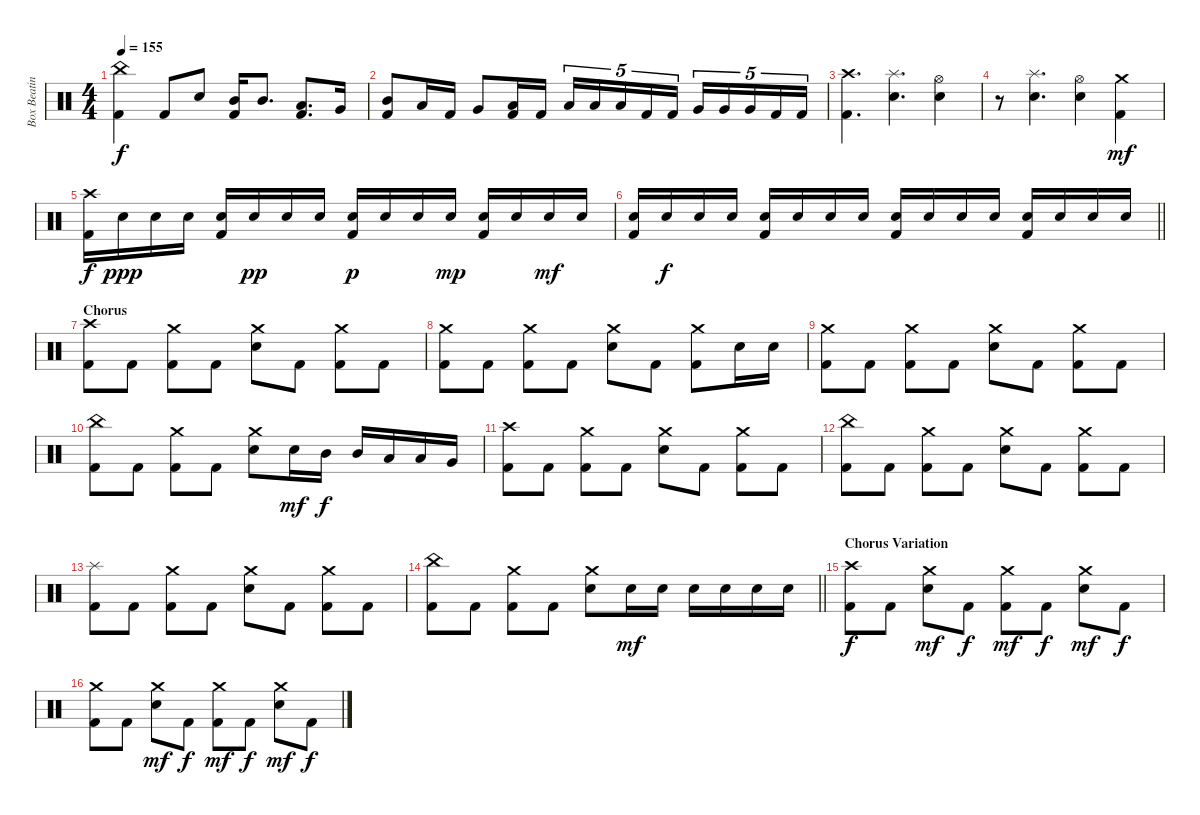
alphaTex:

\track ("Box Beating" "Box Beatin") {instrument percussion}
\staff {score}
\articulation defaults
\ts (4 4)
\tempo 155
\clef neutral
\ks c
("China (hit)" "Kick (hit) 2").4{dy f} "Kick (hit) 2".8 "Electric Snare (hit)".8 ("Mid Tom (hit)" "Kick (hit) 2").16 "Mid Tom (hit)".8{d} ("Low Tom (hit)" "Kick (hit) 2").8{d} "Very Low Tom (hit)".16 |
("Mid Tom (hit)" "Kick (hit) 2").8 "Low Tom (hit)".16 "Kick (hit) 2".16 "Very Low Tom (hit)".8 ("Low Floor Tom (hit)" "Kick (hit) 2").16 "Kick (hit) 2".16 "Low Tom (hit)".16{tu (5 4)} "Low Tom (hit)".16{tu (5 4)} "Low Tom (hit)".16{tu (5 4)} "Kick (hit) 2".16{tu (5 4)} "Kick (hit) 2".16{tu (5 4)} "Very Low Tom (hit)".16{tu (5 4)} "Very Low Tom (hit)".16{tu (5 4)} "Very Low Tom (hit)".16{tu (5 4)} "Kick (hit) 2".16{tu (5 4)} "Kick (hit) 2".16{tu (5 4)} |
("Crash high (hit)" "Kick (hit) 2").4{d} ("Splash (hit)" "Electric Snare (hit)").4{d} ("Hi-Hat (open)" "Electric Snare (hit)").4 |
r.8 ("Splash (hit)" "Electric Snare (hit)").4{d} ("Hi-Hat (open)" "Electric Snare (hit)").4 ("Crash medium (hit)" "Kick (hit) 2").4{dy mf} |
("Crash high (hit)" "Kick (hit) 2").16{dy f} "Electric Snare (hit)".16{dy ppp} "Electric Snare (hit)".16 "Electric Snare (hit)".16 ("Electric Snare (hit)" "Kick (hit) 2").16 "Electric Snare (hit)".16{dy pp} "Electric Snare (hit)".16 "Electric Snare (hit)".16 ("Electric Snare (hit)" "Kick (hit) 2").16{dy p} "Electric Snare (hit)".16 "Electric Snare (hit)".16 "Electric Snare (hit)".16{dy mp} ("Electric Snare (hit)" "Kick (hit) 2").16 "Electric Snare (hit)".16 "Electric Snare (hit)".16{dy mf} "Electric Snare (hit)".16 |
\barLineRight lightlight
("Electric Snare (hit)" "Kick (hit) 2").16 "Electric Snare (hit)".16{dy f} "Electric Snare (hit)".16 "Electric Snare (hit)".16 ("Electric Snare (hit)" "Kick (hit) 2").16 "Electric Snare (hit)".16 "Electric Snare (hit)".16 "Electric Snare (hit)".16 ("Electric Snare (hit)" "Kick (hit) 2").16 "Electric Snare (hit)".16 "Electric Snare (hit)".16 "Electric Snare (hit)".16 ("Electric Snare (hit)" "Kick (hit) 2").16 "Electric Snare (hit)".16 "Electric Snare (hit)".16 "Electric Snare (hit)".16 |
\section ("" "Chorus")
("Crash high (hit)" "Kick (hit) 2").8 "Kick (hit) 2".8 ("Crash medium (hit)" "Kick (hit) 2").8 "Kick (hit) 2".8 ("Crash medium (hit)" "Electric Snare (hit)").8 "Kick (hit) 2".8 ("Crash medium (hit)" "Kick (hit) 2").8 "Kick (hit) 2".8 |
("Crash medium (hit)" "Kick (hit) 2").8 "Kick (hit) 2".8 ("Crash medium (hit)" "Kick (hit) 2").8 "Kick (hit) 2".8 ("Crash medium (hit)" "Electric Snare (hit)").8 "Kick (hit) 2".8 ("Crash medium (hit)" "Kick (hit) 2").8 "Electric Snare (hit)".16 "Electric Snare (hit)".16 |
("Crash medium (hit)" "Kick (hit) 2").8 "Kick (hit) 2".8 ("Crash medium (hit)" "Kick (hit) 2").8 "Kick (hit) 2".8 ("Crash medium (hit)" "Electric Snare (hit)").8 "Kick (hit) 2".8 ("Crash medium (hit)" "Kick (hit) 2").8 "Kick (hit) 2".8 |
("China (hit)" "Kick (hit) 2").8 "Kick (hit) 2".8 ("Crash medium (hit)" "Kick (hit) 2").8 "Kick (hit) 2".8 ("Crash medium (hit)" "Electric Snare (hit)").8 "Electric Snare (hit)".16{dy mf} "Mid Tom (hit)".16{dy f} "Mid Tom (hit)".16 "Low Tom (hit)".16 "Low Tom (hit)".16 "Very Low Tom (hit)".16 |
("Crash high (hit)" "Kick (hit) 2").8 "Kick (hit) 2".8 ("Crash medium (hit)" "Kick (hit) 2").8 "Kick (hit) 2".8 ("Crash medium (hit)" "Electric Snare (hit)").8 "Kick (hit) 2".8 ("Crash medium (hit)" "Kick (hit) 2").8 "Kick (hit) 2".8 |
("China (hit)" "Kick (hit) 2").8 "Kick (hit) 2".8 ("Crash medium (hit)" "Kick (hit) 2").8 "Kick (hit) 2".8 ("Crash medium (hit)" "Electric Snare (hit)").8 "Kick (hit) 2".8 ("Crash medium (hit)" "Kick (hit) 2").8 "Kick (hit) 2".8 |
("Splash (hit)" "Kick (hit) 2").8 "Kick (hit) 2".8 ("Crash medium (hit)" "Kick (hit) 2").8 "Kick (hit) 2".8 ("Crash medium (hit)" "Electric Snare (hit)").8 "Kick (hit) 2".8 ("Crash medium (hit)" "Kick (hit) 2").8 "Kick (hit) 2".8 |
\barLineRight lightlight
("China (hit)" "Kick (hit) 2").8 "Kick (hit) 2".8 ("Crash medium (hit)" "Kick (hit) 2").8 "Kick (hit) 2".8 ("Crash medium (hit)" "Electric Snare (hit)").8 "Electric Snare (hit)".16{dy mf} "Electric Snare (hit)".16 "Electric Snare (hit)".16 "Electric Snare (hit)".16 "Electric Snare (hit)".16 "Electric Snare (hit)".16 |
\section ("" "Chorus Variation")
("Crash high (hit)" "Kick (hit) 2").8{dy f} "Kick (hit) 2".8 ("Crash medium (hit)" "Electric Snare (hit)").8{dy mf} "Kick (hit) 2".8{dy f} ("Crash medium (hit)" "Kick (hit) 2").8{dy mf} "Kick (hit) 2".8{dy f} ("Crash medium (hit)" "Electric Snare (hit)").8{dy mf} "Kick (hit) 2".8{dy f} |
("Crash medium (hit)" "Kick (hit) 2").8 "Kick (hit) 2".8 ("Crash medium (hit)" "Electric Snare (hit)").8{dy mf} "Kick (hit) 2".8{dy f} ("Crash medium (hit)" "Kick (hit) 2").8{dy mf} "Kick (hit) 2".8{dy f} ("Crash medium (hit)" "Electric Snare (hit)").8{dy mf} "Kick (hit) 2".8{dy f}
